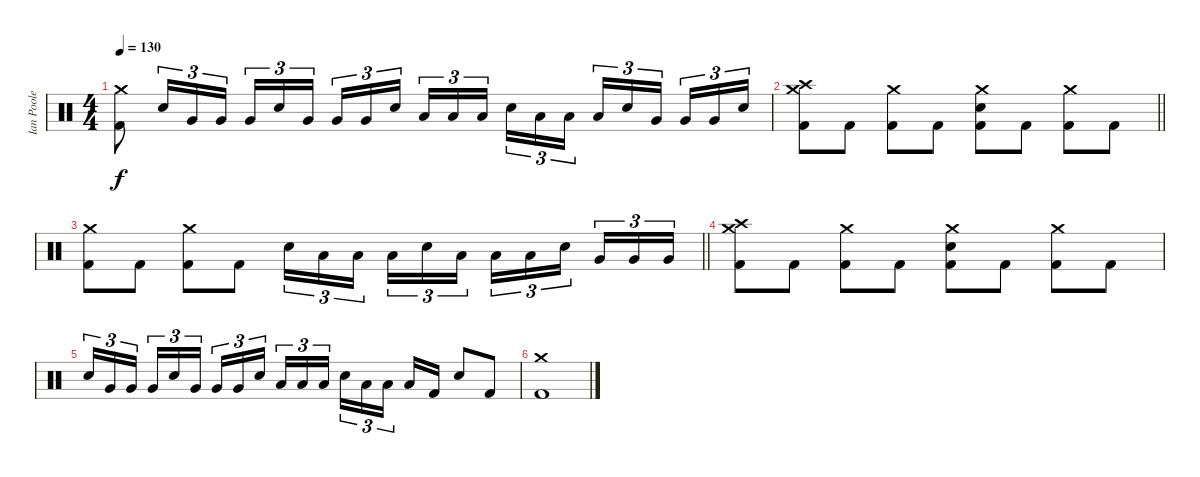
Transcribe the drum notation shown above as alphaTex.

\track ("Ian Poole" "Ian Poole") {instrument percussion}
\staff {score}
\articulation defaults
\ts (4 4)
\tempo 130
\clef neutral
\ks c
("Crash medium (hit)" "Kick (hit) 2").8{dy f} "Electric Snare (hit)".16{tu (3 2)} "Very Low Tom (hit)".16{tu (3 2)} "Very Low Tom (hit)".16{tu (3 2)} "Very Low Tom (hit)".16{tu (3 2)} "Electric Snare (hit)".16{tu (3 2)} "Very Low Tom (hit)".16{tu (3 2)} "Very Low Tom (hit)".16{tu (3 2)} "Very Low Tom (hit)".16{tu (3 2)} "Electric Snare (hit)".16{tu (3 2)} "Low Tom (hit)".16{tu (3 2)} "Low Tom (hit)".16{tu (3 2)} "Low Tom (hit)".16{tu (3 2)} "Electric Snare (hit)".16{tu (3 2)} "Low Floor Tom (hit)".16{tu (3 2)} "Low Floor Tom (hit)".16{tu (3 2)} "Low Floor Tom (hit)".16{tu (3 2)} "Electric Snare (hit)".16{tu (3 2)} "Very Low Tom (hit)".16{tu (3 2)} "Very Low Tom (hit)".16{tu (3 2)} "Very Low Tom (hit)".16{tu (3 2)} "Electric Snare (hit)".16{tu (3 2)} |
\barLineRight lightlight
("Crash medium (hit)" "Crash high (hit)" "Kick (hit) 2").8 "Kick (hit) 2".8 ("Crash medium (hit)" "Kick (hit) 2").8 "Kick (hit) 2".8 ("Crash medium (hit)" "Electric Snare (hit)" "Kick (hit) 2").8 "Kick (hit) 2".8 ("Crash medium (hit)" "Kick (hit) 2").8 "Kick (hit) 2".8 |
\barLineRight lightlight
("Crash medium (hit)" "Kick (hit) 2").8 "Kick (hit) 2".8 ("Crash medium (hit)" "Kick (hit) 2").8 "Kick (hit) 2".8 "Electric Snare (hit)".16{tu (3 2)} "Low Tom (hit)".16{tu (3 2)} "Low Tom (hit)".16{tu (3 2)} "Low Tom (hit)".16{tu (3 2)} "Electric Snare (hit)".16{tu (3 2)} "Low Floor Tom (hit)".16{tu (3 2)} "Low Floor Tom (hit)".16{tu (3 2)} "Low Floor Tom (hit)".16{tu (3 2)} "Electric Snare (hit)".16{tu (3 2)} "Very Low Tom (hit)".16{tu (3 2)} "Very Low Tom (hit)".16{tu (3 2)} "Very Low Tom (hit)".16{tu (3 2)} |
("Crash medium (hit)" "Crash high (hit)" "Kick (hit) 2").8 "Kick (hit) 2".8 ("Crash medium (hit)" "Kick (hit) 2").8 "Kick (hit) 2".8 ("Crash medium (hit)" "Electric Snare (hit)" "Kick (hit) 2").8 "Kick (hit) 2".8 ("Crash medium (hit)" "Kick (hit) 2").8 "Kick (hit) 2".8 |
"Electric Snare (hit)".16{tu (3 2)} "Very Low Tom (hit)".16{tu (3 2)} "Very Low Tom (hit)".16{tu (3 2)} "Very Low Tom (hit)".16{tu (3 2)} "Electric Snare (hit)".16{tu (3 2)} "Very Low Tom (hit)".16{tu (3 2)} "Very Low Tom (hit)".16{tu (3 2)} "Very Low Tom (hit)".16{tu (3 2)} "Electric Snare (hit)".16{tu (3 2)} "Low Tom (hit)".16{tu (3 2)} "Low Tom (hit)".16{tu (3 2)} "Low Tom (hit)".16{tu (3 2)} "Electric Snare (hit)".16{tu (3 2)} "Low Floor Tom (hit)".16{tu (3 2)} "Low Floor Tom (hit)".16{tu (3 2)} "Low Floor Tom (hit)".16 "Kick (hit) 2".16 "Electric Snare (hit)".8 "Kick (hit) 2".8 |
("Crash medium (hit)" "Kick (hit) 2").1
